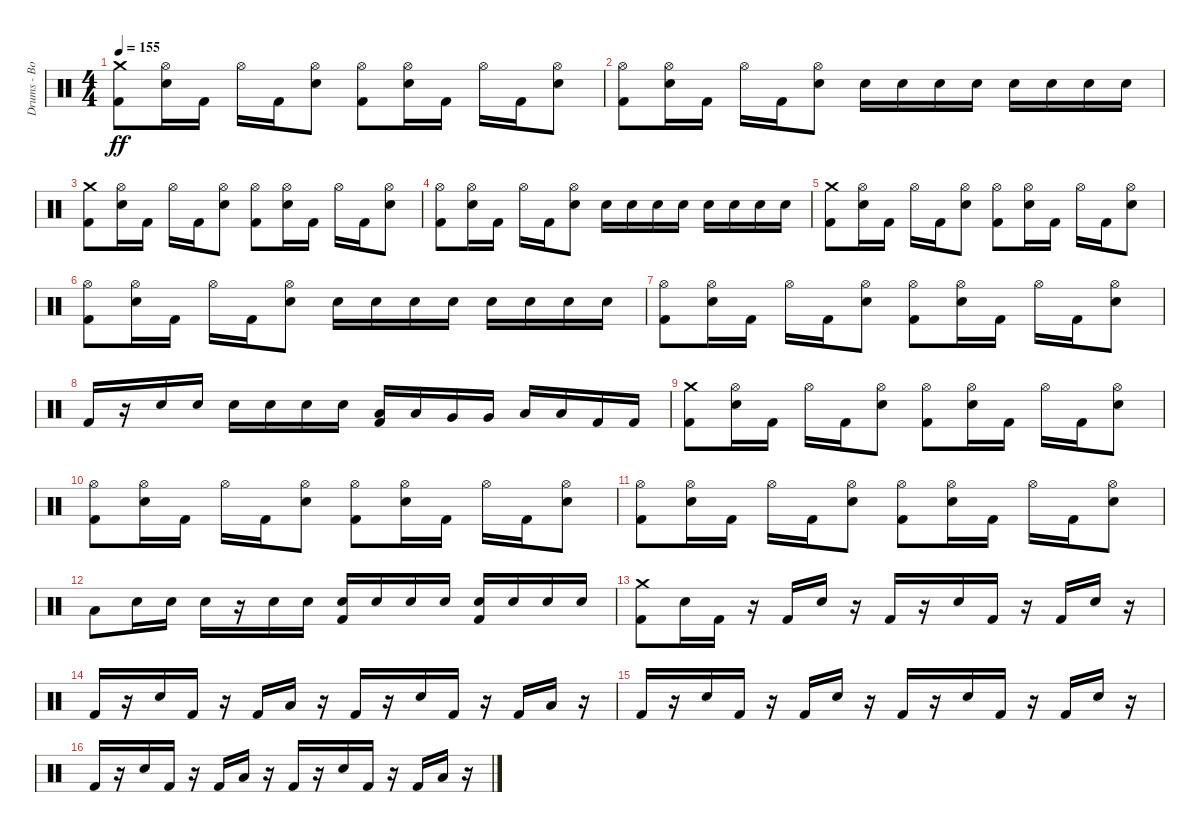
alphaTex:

\track ("Drums - Bobby Schayer" "Drums - Bo") {instrument percussion}
\staff {score}
\articulation defaults
\ts (4 4)
\tempo 155
\clef neutral
\ks c
("Kick (hit) 2" "Crash medium (hit)").8{dy ff} ("Electric Snare (hit)" "Hi-Hat (open)").16 "Kick (hit) 2".16 "Hi-Hat (open)".16 "Kick (hit) 2".16 ("Electric Snare (hit)" "Hi-Hat (open)").8 ("Kick (hit) 2" "Hi-Hat (open)").8 ("Electric Snare (hit)" "Hi-Hat (open)").16 "Kick (hit) 2".16 "Hi-Hat (open)".16 "Kick (hit) 2".16 ("Electric Snare (hit)" "Hi-Hat (open)").8 |
("Kick (hit) 2" "Hi-Hat (open)").8 ("Electric Snare (hit)" "Hi-Hat (open)").16 "Kick (hit) 2".16 "Hi-Hat (open)".16 "Kick (hit) 2".16 ("Electric Snare (hit)" "Hi-Hat (open)").8 "Electric Snare (hit)".16 "Electric Snare (hit)".16 "Electric Snare (hit)".16 "Electric Snare (hit)".16 "Electric Snare (hit)".16 "Electric Snare (hit)".16 "Electric Snare (hit)".16 "Electric Snare (hit)".16 |
("Kick (hit) 2" "Crash medium (hit)").8 ("Electric Snare (hit)" "Hi-Hat (open)").16 "Kick (hit) 2".16 "Hi-Hat (open)".16 "Kick (hit) 2".16 ("Electric Snare (hit)" "Hi-Hat (open)").8 ("Kick (hit) 2" "Hi-Hat (open)").8 ("Electric Snare (hit)" "Hi-Hat (open)").16 "Kick (hit) 2".16 "Hi-Hat (open)".16 "Kick (hit) 2".16 ("Electric Snare (hit)" "Hi-Hat (open)").8 |
("Kick (hit) 2" "Hi-Hat (open)").8 ("Electric Snare (hit)" "Hi-Hat (open)").16 "Kick (hit) 2".16 "Hi-Hat (open)".16 "Kick (hit) 2".16 ("Electric Snare (hit)" "Hi-Hat (open)").8 "Electric Snare (hit)".16 "Electric Snare (hit)".16 "Electric Snare (hit)".16 "Electric Snare (hit)".16 "Electric Snare (hit)".16 "Electric Snare (hit)".16 "Electric Snare (hit)".16 "Electric Snare (hit)".16 |
("Kick (hit) 2" "Crash medium (hit)").8 ("Electric Snare (hit)" "Hi-Hat (open)").16 "Kick (hit) 2".16 "Hi-Hat (open)".16 "Kick (hit) 2".16 ("Electric Snare (hit)" "Hi-Hat (open)").8 ("Kick (hit) 2" "Hi-Hat (open)").8 ("Electric Snare (hit)" "Hi-Hat (open)").16 "Kick (hit) 2".16 "Hi-Hat (open)".16 "Kick (hit) 2".16 ("Electric Snare (hit)" "Hi-Hat (open)").8 |
("Kick (hit) 2" "Hi-Hat (open)").8 ("Electric Snare (hit)" "Hi-Hat (open)").16 "Kick (hit) 2".16 "Hi-Hat (open)".16 "Kick (hit) 2".16 ("Electric Snare (hit)" "Hi-Hat (open)").8 "Electric Snare (hit)".16 "Electric Snare (hit)".16 "Electric Snare (hit)".16 "Electric Snare (hit)".16 "Electric Snare (hit)".16 "Electric Snare (hit)".16 "Electric Snare (hit)".16 "Electric Snare (hit)".16 |
("Kick (hit) 2" "Hi-Hat (open)").8 ("Electric Snare (hit)" "Hi-Hat (open)").16 "Kick (hit) 2".16 "Hi-Hat (open)".16 "Kick (hit) 2".16 ("Electric Snare (hit)" "Hi-Hat (open)").8 ("Kick (hit) 2" "Hi-Hat (open)").8 ("Electric Snare (hit)" "Hi-Hat (open)").16 "Kick (hit) 2".16 "Hi-Hat (open)".16 "Kick (hit) 2".16 ("Electric Snare (hit)" "Hi-Hat (open)").8 |
"Kick (hit) 2".16 r.16 "Electric Snare (hit)".16 "Electric Snare (hit)".16 "Electric Snare (hit)".16 "Electric Snare (hit)".16 "Electric Snare (hit)".16 "Electric Snare (hit)".16 ("Low Tom (hit)" "Kick (hit) 2").16 "Low Tom (hit)".16 "Very Low Tom (hit)".16 "Very Low Tom (hit)".16 "Low Floor Tom (hit)".16 "Low Floor Tom (hit)".16 "Kick (hit) 2".16 "Kick (hit) 2".16 |
("Kick (hit) 2" "Crash medium (hit)").8 ("Electric Snare (hit)" "Hi-Hat (open)").16 "Kick (hit) 2".16 "Hi-Hat (open)".16 "Kick (hit) 2".16 ("Electric Snare (hit)" "Hi-Hat (open)").8 ("Kick (hit) 2" "Hi-Hat (open)").8 ("Electric Snare (hit)" "Hi-Hat (open)").16 "Kick (hit) 2".16 "Hi-Hat (open)".16 "Kick (hit) 2".16 ("Electric Snare (hit)" "Hi-Hat (open)").8 |
("Kick (hit) 2" "Hi-Hat (open)").8 ("Electric Snare (hit)" "Hi-Hat (open)").16 "Kick (hit) 2".16 "Hi-Hat (open)".16 "Kick (hit) 2".16 ("Electric Snare (hit)" "Hi-Hat (open)").8 ("Kick (hit) 2" "Hi-Hat (open)").8 ("Electric Snare (hit)" "Hi-Hat (open)").16 "Kick (hit) 2".16 "Hi-Hat (open)".16 "Kick (hit) 2".16 ("Electric Snare (hit)" "Hi-Hat (open)").8 |
("Kick (hit) 2" "Hi-Hat (open)").8 ("Electric Snare (hit)" "Hi-Hat (open)").16 "Kick (hit) 2".16 "Hi-Hat (open)".16 "Kick (hit) 2".16 ("Electric Snare (hit)" "Hi-Hat (open)").8 ("Kick (hit) 2" "Hi-Hat (open)").8 ("Electric Snare (hit)" "Hi-Hat (open)").16 "Kick (hit) 2".16 "Hi-Hat (open)".16 "Kick (hit) 2".16 ("Electric Snare (hit)" "Hi-Hat (open)").8 |
"Low Tom (hit)".8 "Electric Snare (hit)".16 "Electric Snare (hit)".16 "Electric Snare (hit)".16 r.16 "Electric Snare (hit)".16 "Electric Snare (hit)".16 ("Kick (hit) 2" "Electric Snare (hit)").16 "Electric Snare (hit)".16 "Electric Snare (hit)".16 "Electric Snare (hit)".16 ("Kick (hit) 2" "Electric Snare (hit)").16 "Electric Snare (hit)".16 "Electric Snare (hit)".16 "Electric Snare (hit)".16 |
("Kick (hit) 2" "Crash medium (hit)").8 "Electric Snare (hit)".16 "Kick (hit) 2".16 r.16 "Kick (hit) 2".16 "Electric Snare (hit)".16 r.16 "Kick (hit) 2".16 r.16 "Electric Snare (hit)".16 "Kick (hit) 2".16 r.16 "Kick (hit) 2".16 "Electric Snare (hit)".16 r.16 |
"Kick (hit) 2".16 r.16 "Electric Snare (hit)".16 "Kick (hit) 2".16 r.16 "Kick (hit) 2".16 "Low Tom (hit)".16 r.16 "Kick (hit) 2".16 r.16 "Electric Snare (hit)".16 "Kick (hit) 2".16 r.16 "Kick (hit) 2".16 "Low Tom (hit)".16 r.16 |
"Kick (hit) 2".16 r.16 "Electric Snare (hit)".16 "Kick (hit) 2".16 r.16 "Kick (hit) 2".16 "Electric Snare (hit)".16 r.16 "Kick (hit) 2".16 r.16 "Electric Snare (hit)".16 "Kick (hit) 2".16 r.16 "Kick (hit) 2".16 "Electric Snare (hit)".16 r.16 |
"Kick (hit) 2".16 r.16 "Electric Snare (hit)".16 "Kick (hit) 2".16 r.16 "Kick (hit) 2".16 "Low Tom (hit)".16 r.16 "Kick (hit) 2".16 r.16 "Electric Snare (hit)".16 "Kick (hit) 2".16 r.16 "Kick (hit) 2".16 "Low Tom (hit)".16 r.16
